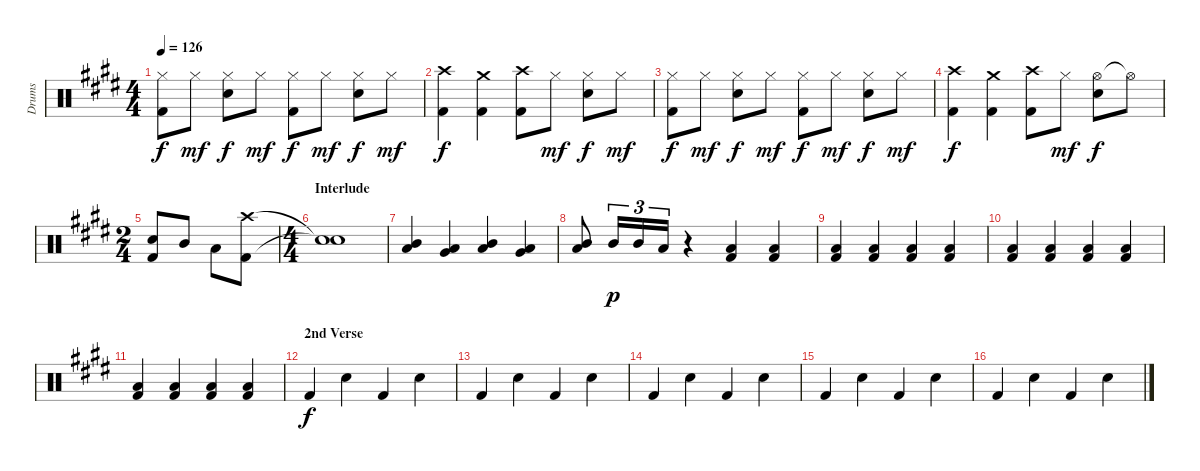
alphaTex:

\track ("Drums" "Drums") {instrument percussion}
\staff {score}
\articulation defaults
\ts (4 4)
\tempo 126
\clef neutral
\ks e
("Hi-Hat (closed)" "Kick (hit) 2").8{dy f} "Hi-Hat (closed)".8{dy mf} ("Hi-Hat (closed)" "Snare (hit) 2").8{dy f} "Hi-Hat (closed)".8{dy mf} ("Hi-Hat (closed)" "Kick (hit) 2").8{dy f} "Hi-Hat (closed)".8{dy mf} ("Hi-Hat (closed)" "Snare (hit) 2").8{dy f} "Hi-Hat (closed)".8{dy mf} |
("Crash high (hit)" "Kick (hit) 2").4{dy f} ("Crash medium (hit)" "Kick (hit) 2").4 ("Crash high (hit)" "Kick (hit) 2").8 "Hi-Hat (closed)".8{dy mf} ("Hi-Hat (closed)" "Snare (hit) 2").8{dy f} "Hi-Hat (closed)".8{dy mf} |
("Hi-Hat (closed)" "Kick (hit) 2").8{dy f} "Hi-Hat (closed)".8{dy mf} ("Hi-Hat (closed)" "Snare (hit) 2").8{dy f} "Hi-Hat (closed)".8{dy mf} ("Hi-Hat (closed)" "Kick (hit) 2").8{dy f} "Hi-Hat (closed)".8{dy mf} ("Hi-Hat (closed)" "Snare (hit) 2").8{dy f} "Hi-Hat (closed)".8{dy mf} |
("Crash high (hit)" "Kick (hit) 2").4{dy f} ("Crash medium (hit)" "Kick (hit) 2").4 ("Crash high (hit)" "Kick (hit) 2").8 "Hi-Hat (closed)".8{dy mf} ("Hi-Hat (open)" "Snare (hit) 2").8{dy f} "Hi-Hat (open)"{t}.8 |
\ts (2 4)
("Snare (hit) 2" "Kick (hit) 2").8 "Mid Tom (hit)".8 "Low Tom (hit)".8 ("Crash high (hit)" "Kick (hit) 2").8 |
\ts (4 4)
\section ("" "Interlude")
("Snare (hit)"{t} "Snare (hit)"{t}).1 |
("Mid Tom (hit)" "Low Tom (hit)").4 ("Low Tom (hit)" "Very Low Tom (hit)").4 ("Mid Tom (hit)" "Low Tom (hit)").4 ("Low Tom (hit)" "Very Low Tom (hit)").4 |
("Mid Tom (hit)" "Low Tom (hit)").8 "Mid Tom (hit)".16{tu (3 2) dy p} "Mid Tom (hit)".16{tu (3 2)} "Low Tom (hit)".16{tu (3 2)} r.4 ("Low Tom (hit)" "Kick (hit) 2").4 ("Low Tom (hit)" "Kick (hit) 2").4 |
("Low Tom (hit)" "Kick (hit) 2").4 ("Low Tom (hit)" "Kick (hit) 2").4 ("Low Tom (hit)" "Kick (hit) 2").4 ("Low Tom (hit)" "Kick (hit) 2").4 |
("Low Tom (hit)" "Kick (hit) 2").4 ("Low Tom (hit)" "Kick (hit) 2").4 ("Low Tom (hit)" "Kick (hit) 2").4 ("Low Tom (hit)" "Kick (hit) 2").4 |
("Low Tom (hit)" "Kick (hit) 2").4 ("Low Tom (hit)" "Kick (hit) 2").4 ("Low Tom (hit)" "Kick (hit) 2").4 ("Low Tom (hit)" "Kick (hit) 2").4 |
\section ("" "2nd Verse")
"Kick (hit) 2".4{dy f} "Snare (hit) 2".4 "Kick (hit) 2".4 "Snare (hit) 2".4 |
"Kick (hit) 2".4 "Snare (hit) 2".4 "Kick (hit) 2".4 "Snare (hit) 2".4 |
"Kick (hit) 2".4 "Snare (hit) 2".4 "Kick (hit) 2".4 "Snare (hit) 2".4 |
"Kick (hit) 2".4 "Snare (hit) 2".4 "Kick (hit) 2".4 "Snare (hit) 2".4 |
"Kick (hit) 2".4 "Snare (hit) 2".4 "Kick (hit) 2".4 "Snare (hit) 2".4
